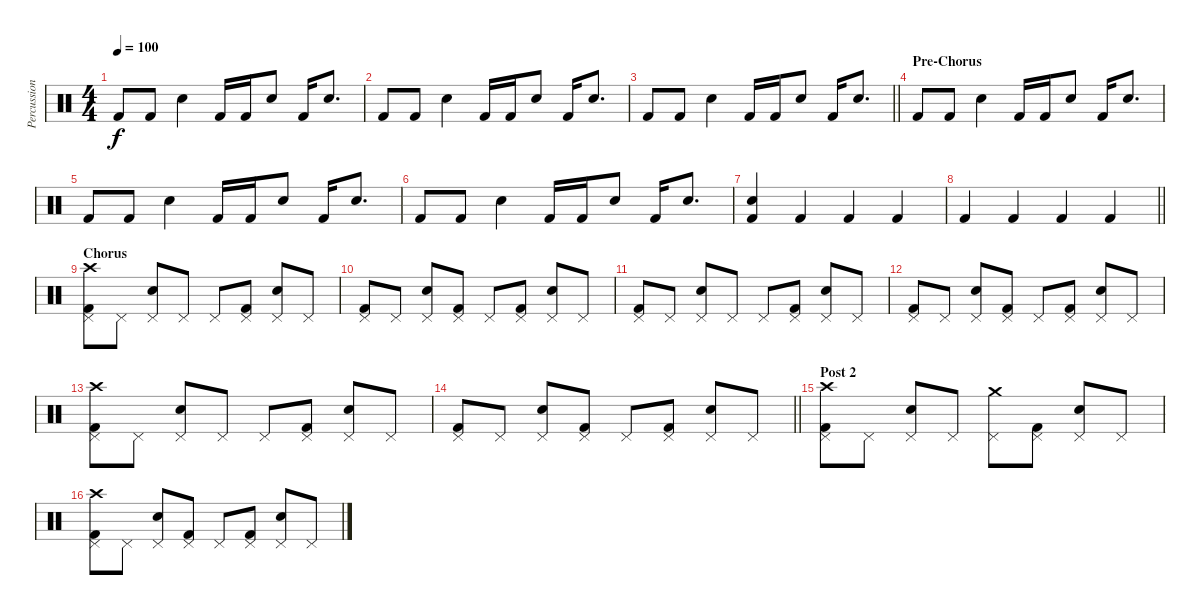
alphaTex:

\track ("Percussion" "Percussion") {instrument percussion}
\staff {score}
\articulation defaults
\ts (4 4)
\tempo 100
\clef neutral
\ks c "Kick (hit) 2".8{dy f} "Kick (hit) 2".8 "Hand Clap (hit)".4 "Kick (hit) 2".16 "Kick (hit) 2".16 "Hand Clap (hit)".8 "Kick (hit) 2".16 "Hand Clap (hit)".8{d}
|
"Kick (hit) 2".8 "Kick (hit) 2".8 "Hand Clap (hit)".4 "Kick (hit) 2".16 "Kick (hit) 2".16 "Hand Clap (hit)".8 "Kick (hit) 2".16 "Hand Clap (hit)".8{d} |
\barLineRight lightlight "Kick (hit) 2".8 "Kick (hit) 2".8 "Hand Clap (hit)".4 "Kick (hit) 2".16 "Kick (hit) 2".16 "Hand Clap (hit)".8 "Kick (hit) 2".16 "Hand Clap (hit)".8{d}
|
\section ("" "Pre-Chorus")
"Kick (hit) 2".8 "Kick (hit) 2".8 "Hand Clap (hit)".4 "Kick (hit) 2".16 "Kick (hit) 2".16 "Hand Clap (hit)".8 "Kick (hit) 2".16 "Hand Clap (hit)".8{d} |
"Kick (hit) 2".8 "Kick (hit) 2".8 "Hand Clap (hit)".4 "Kick (hit) 2".16 "Kick (hit) 2".16 "Hand Clap (hit)".8 "Kick (hit) 2".16 "Hand Clap (hit)".8{d} |
"Kick (hit) 2".8 "Kick (hit) 2".8 "Hand Clap (hit)".4 "Kick (hit) 2".16 "Kick (hit) 2".16 "Hand Clap (hit)".8 "Kick (hit) 2".16 "Hand Clap (hit)".8{d} |
("Hand Clap (hit)" "Kick (hit) 2").4 "Kick (hit) 2".4 "Kick (hit) 2".4 "Kick (hit) 2".4 |
\barLineRight lightlight "Kick (hit) 2".4 "Kick (hit) 2".4 "Kick (hit) 2".4 "Kick (hit) 2".4
|
\section ("" "Chorus")
("Pedal Hi-Hat (hit)" "Crash high (hit)" "Kick (hit) 2").8 "Pedal Hi-Hat (hit)".8 ("Pedal Hi-Hat (hit)" "Electric Snare (hit)").8 "Pedal Hi-Hat (hit)".8 "Pedal Hi-Hat (hit)".8 ("Pedal Hi-Hat (hit)" "Kick (hit) 2").8 ("Pedal Hi-Hat (hit)" "Electric Snare (hit)").8 "Pedal Hi-Hat (hit)".8 |
("Pedal Hi-Hat (hit)" "Kick (hit) 2").8 "Pedal Hi-Hat (hit)".8 ("Pedal Hi-Hat (hit)" "Electric Snare (hit)").8 ("Pedal Hi-Hat (hit)" "Kick (hit) 2").8 "Pedal Hi-Hat (hit)".8 ("Pedal Hi-Hat (hit)" "Kick (hit) 2").8 ("Pedal Hi-Hat (hit)" "Electric Snare (hit)").8 "Pedal Hi-Hat (hit)".8 |
("Pedal Hi-Hat (hit)" "Kick (hit) 2").8 "Pedal Hi-Hat (hit)".8 ("Pedal Hi-Hat (hit)" "Electric Snare (hit)").8 "Pedal Hi-Hat (hit)".8 "Pedal Hi-Hat (hit)".8 ("Pedal Hi-Hat (hit)" "Kick (hit) 2").8 ("Pedal Hi-Hat (hit)" "Electric Snare (hit)").8 "Pedal Hi-Hat (hit)".8 |
("Pedal Hi-Hat (hit)" "Kick (hit) 2").8 "Pedal Hi-Hat (hit)".8 ("Pedal Hi-Hat (hit)" "Electric Snare (hit)").8 ("Pedal Hi-Hat (hit)" "Kick (hit) 2").8 "Pedal Hi-Hat (hit)".8 ("Pedal Hi-Hat (hit)" "Kick (hit) 2").8 ("Pedal Hi-Hat (hit)" "Electric Snare (hit)").8 "Pedal Hi-Hat (hit)".8 |
("Pedal Hi-Hat (hit)" "Crash high (hit)" "Kick (hit) 2").8 "Pedal Hi-Hat (hit)".8 ("Pedal Hi-Hat (hit)" "Electric Snare (hit)").8 "Pedal Hi-Hat (hit)".8 "Pedal Hi-Hat (hit)".8 ("Pedal Hi-Hat (hit)" "Kick (hit) 2").8 ("Pedal Hi-Hat (hit)" "Electric Snare (hit)").8 "Pedal Hi-Hat (hit)".8 |
\barLineRight lightlight
("Pedal Hi-Hat (hit)" "Kick (hit) 2").8 "Pedal Hi-Hat (hit)".8 ("Pedal Hi-Hat (hit)" "Electric Snare (hit)").8 ("Pedal Hi-Hat (hit)" "Kick (hit) 2").8 "Pedal Hi-Hat (hit)".8 ("Pedal Hi-Hat (hit)" "Kick (hit) 2").8 ("Pedal Hi-Hat (hit)" "Electric Snare (hit)").8 "Pedal Hi-Hat (hit)".8 |
\section ("" "Post 2")
("Pedal Hi-Hat (hit)" "Crash high (hit)" "Kick (hit) 2").8 "Pedal Hi-Hat (hit)".8 ("Pedal Hi-Hat (hit)" "Electric Snare (hit)").8 "Pedal Hi-Hat (hit)".8 ("Pedal Hi-Hat (hit)" "Crash medium (hit)").8 ("Pedal Hi-Hat (hit)" "Kick (hit) 2").8 ("Pedal Hi-Hat (hit)" "Electric Snare (hit)").8 "Pedal Hi-Hat (hit)".8 |
("Pedal Hi-Hat (hit)" "Crash high (hit)" "Kick (hit) 2").8 "Pedal Hi-Hat (hit)".8 ("Pedal Hi-Hat (hit)" "Electric Snare (hit)").8 ("Pedal Hi-Hat (hit)" "Kick (hit) 2").8 "Pedal Hi-Hat (hit)".8 ("Pedal Hi-Hat (hit)" "Kick (hit) 2").8 ("Pedal Hi-Hat (hit)" "Electric Snare (hit)").8 "Pedal Hi-Hat (hit)".8
